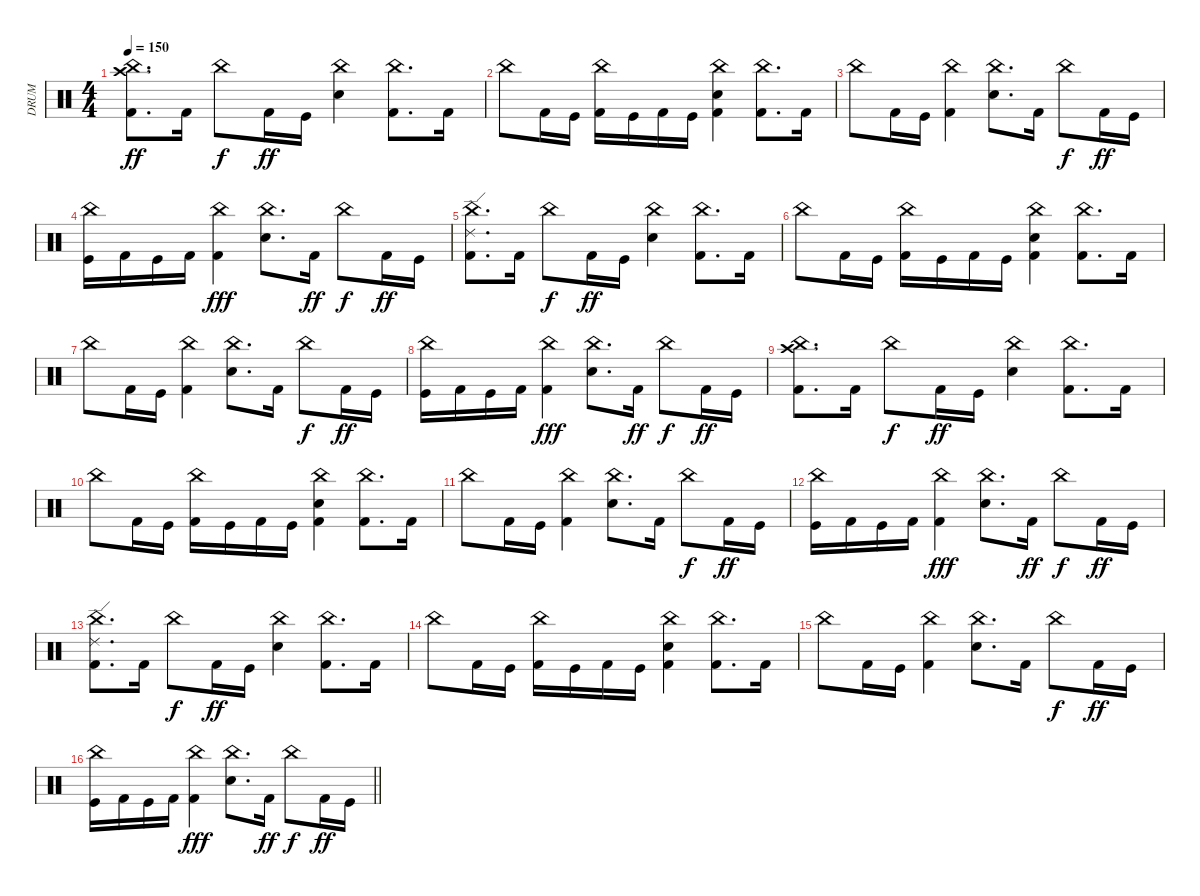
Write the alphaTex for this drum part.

\track ("DRUM" "DRUM") {instrument percussion}
\staff {score}
\articulation defaults
\ts (4 4)
\tempo 150
\clef neutral
\ks c
("China (hit)" "Crash high (hit)" "Kick (hit) 2").8{d dy ff} "Kick (hit) 2".16 "China (hit)".8{dy f} "Kick (hit) 2".16{dy ff} "Kick (hit)".16 ("China (hit)" "Snare (hit) 2").4 ("China (hit)" "Kick (hit) 2").8{d} "Kick (hit) 2".16 |
"China (hit)".8 "Kick (hit) 2".16 "Kick (hit)".16 ("China (hit)" "Kick (hit) 2").16 "Kick (hit)".16 "Kick (hit) 2".16 "Kick (hit)".16 ("China (hit)" "Snare (hit) 2" "Kick (hit) 2").4 ("China (hit)" "Kick (hit) 2").8{d} "Kick (hit) 2".16 |
"China (hit)".8 "Kick (hit) 2".16 "Kick (hit)".16 ("China (hit)" "Kick (hit) 2").4 ("China (hit)" "Snare (hit) 2").8{d} "Kick (hit) 2".16 "China (hit)".8{dy f} "Kick (hit) 2".16{dy ff} "Kick (hit)".16 |
("China (hit)" "Kick (hit)").16 "Kick (hit) 2".16 "Kick (hit)".16 "Kick (hit) 2".16 ("China (hit)" "Kick (hit) 2").4{dy fff} ("China (hit)" "Snare (hit) 2").8{d} "Kick (hit) 2".16{dy ff} "China (hit)".8{dy f} "Kick (hit) 2".16{dy ff} "Kick (hit)".16 |
("China (hit)" "Ride (edge) 2" "Kick (hit) 2").8{d volume 7} "Kick (hit) 2".16 "China (hit)".8{dy f} "Kick (hit) 2".16{dy ff} "Kick (hit)".16 ("China (hit)" "Snare (hit) 2").4 ("China (hit)" "Kick (hit) 2").8{d} "Kick (hit) 2".16 |
"China (hit)".8 "Kick (hit) 2".16 "Kick (hit)".16 ("China (hit)" "Kick (hit) 2").16 "Kick (hit)".16 "Kick (hit) 2".16 "Kick (hit)".16 ("China (hit)" "Snare (hit) 2" "Kick (hit) 2").4 ("China (hit)" "Kick (hit) 2").8{d} "Kick (hit) 2".16 |
"China (hit)".8 "Kick (hit) 2".16 "Kick (hit)".16 ("China (hit)" "Kick (hit) 2").4 ("China (hit)" "Snare (hit) 2").8{d} "Kick (hit) 2".16 "China (hit)".8{dy f} "Kick (hit) 2".16{dy ff} "Kick (hit)".16 |
("China (hit)" "Kick (hit)").16 "Kick (hit) 2".16 "Kick (hit)".16 "Kick (hit) 2".16 ("China (hit)" "Kick (hit) 2").4{dy fff} ("China (hit)" "Snare (hit) 2").8{d} "Kick (hit) 2".16{dy ff} "China (hit)".8{dy f} "Kick (hit) 2".16{dy ff} "Kick (hit)".16 |
("China (hit)" "Crash high (hit)" "Kick (hit) 2").8{d volume 3} "Kick (hit) 2".16 "China (hit)".8{dy f} "Kick (hit) 2".16{dy ff} "Kick (hit)".16 ("China (hit)" "Snare (hit) 2").4 ("China (hit)" "Kick (hit) 2").8{d} "Kick (hit) 2".16 |
"China (hit)".8 "Kick (hit) 2".16 "Kick (hit)".16 ("China (hit)" "Kick (hit) 2").16 "Kick (hit)".16 "Kick (hit) 2".16 "Kick (hit)".16 ("China (hit)" "Snare (hit) 2" "Kick (hit) 2").4 ("China (hit)" "Kick (hit) 2").8{d} "Kick (hit) 2".16 |
"China (hit)".8 "Kick (hit) 2".16 "Kick (hit)".16 ("China (hit)" "Kick (hit) 2").4 ("China (hit)" "Snare (hit) 2").8{d} "Kick (hit) 2".16 "China (hit)".8{dy f} "Kick (hit) 2".16{dy ff} "Kick (hit)".16 |
("China (hit)" "Kick (hit)").16 "Kick (hit) 2".16 "Kick (hit)".16 "Kick (hit) 2".16 ("China (hit)" "Kick (hit) 2").4{dy fff} ("China (hit)" "Snare (hit) 2").8{d} "Kick (hit) 2".16{dy ff} "China (hit)".8{dy f} "Kick (hit) 2".16{dy ff} "Kick (hit)".16 |
("China (hit)" "Ride (edge) 2" "Kick (hit) 2").8{d volume 0} "Kick (hit) 2".16 "China (hit)".8{dy f} "Kick (hit) 2".16{dy ff} "Kick (hit)".16 ("China (hit)" "Snare (hit) 2").4 ("China (hit)" "Kick (hit) 2").8{d} "Kick (hit) 2".16 |
"China (hit)".8 "Kick (hit) 2".16 "Kick (hit)".16 ("China (hit)" "Kick (hit) 2").16 "Kick (hit)".16 "Kick (hit) 2".16 "Kick (hit)".16 ("China (hit)" "Snare (hit) 2" "Kick (hit) 2").4 ("China (hit)" "Kick (hit) 2").8{d} "Kick (hit) 2".16 |
"China (hit)".8 "Kick (hit) 2".16 "Kick (hit)".16 ("China (hit)" "Kick (hit) 2").4 ("China (hit)" "Snare (hit) 2").8{d} "Kick (hit) 2".16 "China (hit)".8{dy f} "Kick (hit) 2".16{dy ff} "Kick (hit)".16 |
\barLineRight lightlight
("China (hit)" "Kick (hit)").16 "Kick (hit) 2".16 "Kick (hit)".16 "Kick (hit) 2".16 ("China (hit)" "Kick (hit) 2").4{dy fff} ("China (hit)" "Snare (hit) 2").8{d} "Kick (hit) 2".16{dy ff} "China (hit)".8{dy f} "Kick (hit) 2".16{dy ff} "Kick (hit)".16
